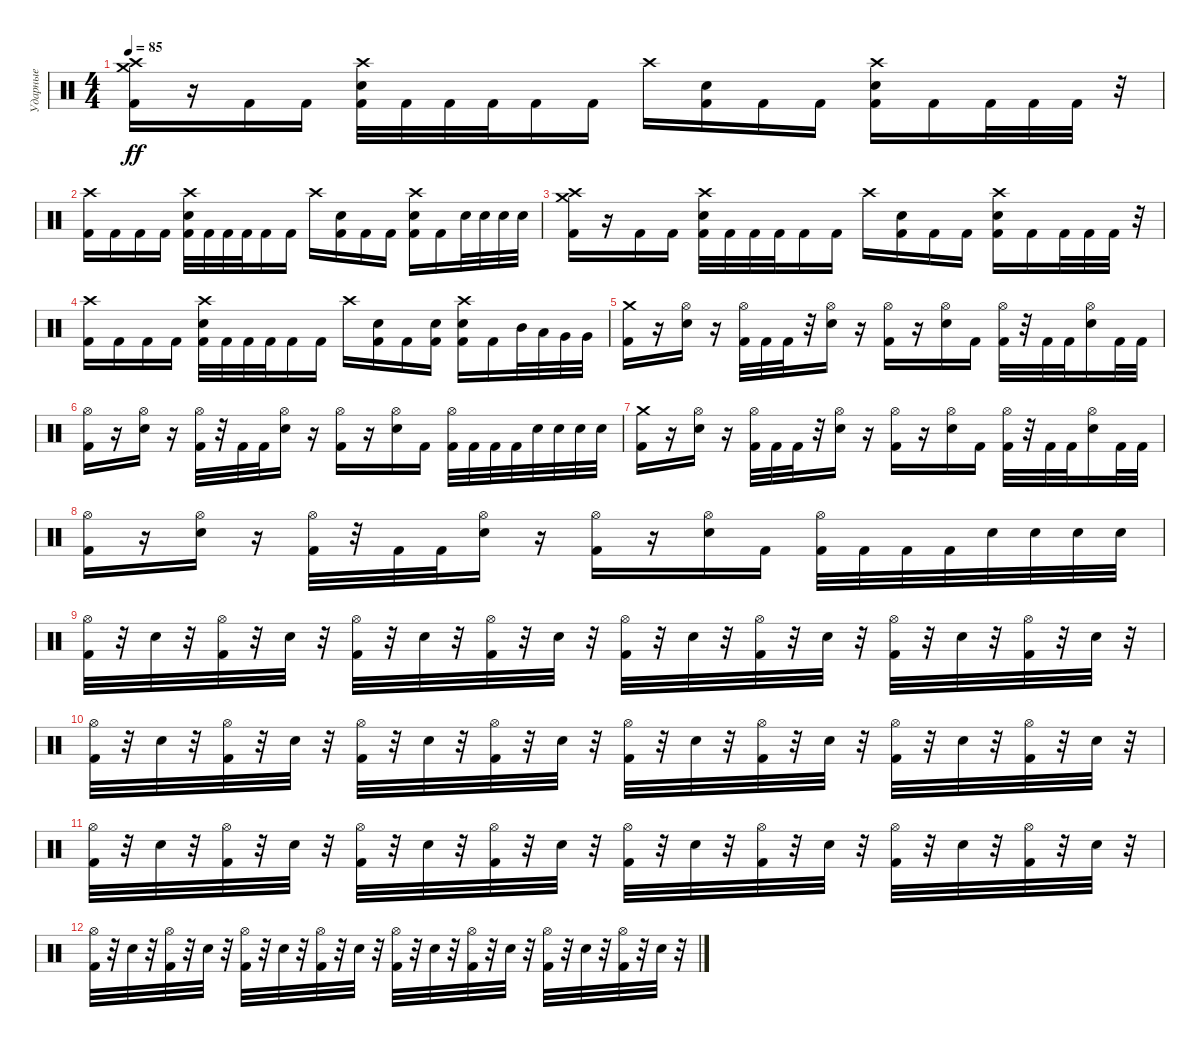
\track ("Ударные" "Ударные") {instrument percussion}
\staff {score}
\articulation defaults
\ts (4 4)
\tempo 85
\clef neutral
\ks c
("Crash high (hit)" "Crash medium (hit)" "Kick (hit) 2").16{dy ff} r.16 "Kick (hit) 2".16 "Kick (hit) 2".16 ("Crash high (hit)" "Electric Snare (hit)" "Kick (hit) 2").32 "Kick (hit) 2".32 "Kick (hit) 2".32 "Kick (hit) 2".32 "Kick (hit) 2".16 "Kick (hit) 2".16 "Crash high (hit)".16 ("Electric Snare (hit)" "Kick (hit) 2").16 "Kick (hit) 2".16 "Kick (hit) 2".16 ("Crash high (hit)" "Electric Snare (hit)" "Kick (hit) 2").16 "Kick (hit) 2".16 "Kick (hit) 2".32 "Kick (hit) 2".32 "Kick (hit) 2".32 r.32 |
("Crash high (hit)" "Kick (hit) 2").16 "Kick (hit) 2".16 "Kick (hit) 2".16 "Kick (hit) 2".16 ("Crash high (hit)" "Electric Snare (hit)" "Kick (hit) 2").32 "Kick (hit) 2".32 "Kick (hit) 2".32 "Kick (hit) 2".32 "Kick (hit) 2".16 "Kick (hit) 2".16 "Crash high (hit)".16 ("Electric Snare (hit)" "Kick (hit) 2").16 "Kick (hit) 2".16 "Kick (hit) 2".16 ("Crash high (hit)" "Electric Snare (hit)" "Kick (hit) 2").16 "Kick (hit) 2".16 "Electric Snare (hit)".32 "Electric Snare (hit)".32 "Electric Snare (hit)".32 "Electric Snare (hit)".32 |
("Crash high (hit)" "Crash medium (hit)" "Kick (hit) 2").16 r.16 "Kick (hit) 2".16 "Kick (hit) 2".16 ("Crash high (hit)" "Electric Snare (hit)" "Kick (hit) 2").32 "Kick (hit) 2".32 "Kick (hit) 2".32 "Kick (hit) 2".32 "Kick (hit) 2".16 "Kick (hit) 2".16 "Crash high (hit)".16 ("Electric Snare (hit)" "Kick (hit) 2").16 "Kick (hit) 2".16 "Kick (hit) 2".16 ("Crash high (hit)" "Electric Snare (hit)" "Kick (hit) 2").16 "Kick (hit) 2".16 "Kick (hit) 2".32 "Kick (hit) 2".32 "Kick (hit) 2".32 r.32 |
("Crash high (hit)" "Kick (hit) 2").16 "Kick (hit) 2".16 "Kick (hit) 2".16 "Kick (hit) 2".16 ("Crash high (hit)" "Electric Snare (hit)" "Kick (hit) 2").32 "Kick (hit) 2".32 "Kick (hit) 2".32 "Kick (hit) 2".32 "Kick (hit) 2".16 "Kick (hit) 2".16 "Crash high (hit)".16 ("Electric Snare (hit)" "Kick (hit) 2").16 "Kick (hit) 2".16 ("Electric Snare (hit)" "Kick (hit) 2").16 ("Crash high (hit)" "Electric Snare (hit)" "Kick (hit) 2").16 "Kick (hit) 2".16 "Mid Tom (hit)".32 "Low Tom (hit)".32 "Very Low Tom (hit)".32 "Very Low Tom (hit)".32 |
("Crash medium (hit)" "Kick (hit) 2").16 r.16 ("Hi-Hat (open)" "Electric Snare (hit)").16 r.16 ("Hi-Hat (open)" "Kick (hit) 2").32 "Kick (hit) 2".32 "Kick (hit) 2".32 r.32 ("Hi-Hat (open)" "Electric Snare (hit)").16 r.16 ("Hi-Hat (open)" "Kick (hit) 2").16 r.16 ("Hi-Hat (open)" "Electric Snare (hit)").16 "Kick (hit) 2".16 ("Hi-Hat (open)" "Kick (hit) 2").32 r.32 "Kick (hit) 2".32 "Kick (hit) 2".32 ("Hi-Hat (open)" "Electric Snare (hit)").16 "Kick (hit) 2".32 "Kick (hit) 2".32 |
("Hi-Hat (open)" "Kick (hit) 2").16 r.16 ("Hi-Hat (open)" "Electric Snare (hit)").16 r.16 ("Hi-Hat (open)" "Kick (hit) 2").32 r.32 "Kick (hit) 2".32 "Kick (hit) 2".32 ("Hi-Hat (open)" "Electric Snare (hit)").16 r.16 ("Hi-Hat (open)" "Kick (hit) 2").16 r.16 ("Hi-Hat (open)" "Electric Snare (hit)").16 "Kick (hit) 2".16 ("Hi-Hat (open)" "Kick (hit) 2").32 "Kick (hit) 2".32 "Kick (hit) 2".32 "Kick (hit) 2".32 "Electric Snare (hit)".32 "Electric Snare (hit)".32 "Electric Snare (hit)".32 "Electric Snare (hit)".32 |
("Crash medium (hit)" "Kick (hit) 2").16 r.16 ("Hi-Hat (open)" "Electric Snare (hit)").16 r.16 ("Hi-Hat (open)" "Kick (hit) 2").32 "Kick (hit) 2".32 "Kick (hit) 2".32 r.32 ("Hi-Hat (open)" "Electric Snare (hit)").16 r.16 ("Hi-Hat (open)" "Kick (hit) 2").16 r.16 ("Hi-Hat (open)" "Electric Snare (hit)").16 "Kick (hit) 2".16 ("Hi-Hat (open)" "Kick (hit) 2").32 r.32 "Kick (hit) 2".32 "Kick (hit) 2".32 ("Hi-Hat (open)" "Electric Snare (hit)").16 "Kick (hit) 2".32 "Kick (hit) 2".32 |
("Hi-Hat (open)" "Kick (hit) 2").16 r.16 ("Hi-Hat (open)" "Electric Snare (hit)").16 r.16 ("Hi-Hat (open)" "Kick (hit) 2").32 r.32 "Kick (hit) 2".32 "Kick (hit) 2".32 ("Hi-Hat (open)" "Electric Snare (hit)").16 r.16 ("Hi-Hat (open)" "Kick (hit) 2").16 r.16 ("Hi-Hat (open)" "Electric Snare (hit)").16 "Kick (hit) 2".16 ("Hi-Hat (open)" "Kick (hit) 2").32 "Kick (hit) 2".32 "Kick (hit) 2".32 "Kick (hit) 2".32 "Electric Snare (hit)".32 "Electric Snare (hit)".32 "Electric Snare (hit)".32 "Electric Snare (hit)".32 |
("Hi-Hat (open)" "Kick (hit) 2").32 r.32 "Electric Snare (hit)".32 r.32 ("Hi-Hat (open)" "Kick (hit) 2").32 r.32 "Electric Snare (hit)".32 r.32 ("Hi-Hat (open)" "Kick (hit) 2").32 r.32 "Electric Snare (hit)".32 r.32 ("Hi-Hat (open)" "Kick (hit) 2").32 r.32 "Electric Snare (hit)".32 r.32 ("Hi-Hat (open)" "Kick (hit) 2").32 r.32 "Electric Snare (hit)".32 r.32 ("Hi-Hat (open)" "Kick (hit) 2").32 r.32 "Electric Snare (hit)".32 r.32 ("Hi-Hat (open)" "Kick (hit) 2").32 r.32 "Electric Snare (hit)".32 r.32 ("Hi-Hat (open)" "Kick (hit) 2").32 r.32 "Electric Snare (hit)".32 r.32 |
("Hi-Hat (open)" "Kick (hit) 2").32 r.32 "Electric Snare (hit)".32 r.32 ("Hi-Hat (open)" "Kick (hit) 2").32 r.32 "Electric Snare (hit)".32 r.32 ("Hi-Hat (open)" "Kick (hit) 2").32 r.32 "Electric Snare (hit)".32 r.32 ("Hi-Hat (open)" "Kick (hit) 2").32 r.32 "Electric Snare (hit)".32 r.32 ("Hi-Hat (open)" "Kick (hit) 2").32 r.32 "Electric Snare (hit)".32 r.32 ("Hi-Hat (open)" "Kick (hit) 2").32 r.32 "Electric Snare (hit)".32 r.32 ("Hi-Hat (open)" "Kick (hit) 2").32 r.32 "Electric Snare (hit)".32 r.32 ("Hi-Hat (open)" "Kick (hit) 2").32 r.32 "Electric Snare (hit)".32 r.32 |
("Hi-Hat (open)" "Kick (hit) 2").32 r.32 "Electric Snare (hit)".32 r.32 ("Hi-Hat (open)" "Kick (hit) 2").32 r.32 "Electric Snare (hit)".32 r.32 ("Hi-Hat (open)" "Kick (hit) 2").32 r.32 "Electric Snare (hit)".32 r.32 ("Hi-Hat (open)" "Kick (hit) 2").32 r.32 "Electric Snare (hit)".32 r.32 ("Hi-Hat (open)" "Kick (hit) 2").32 r.32 "Electric Snare (hit)".32 r.32 ("Hi-Hat (open)" "Kick (hit) 2").32 r.32 "Electric Snare (hit)".32 r.32 ("Hi-Hat (open)" "Kick (hit) 2").32 r.32 "Electric Snare (hit)".32 r.32 ("Hi-Hat (open)" "Kick (hit) 2").32 r.32 "Electric Snare (hit)".32 r.32 |
("Hi-Hat (open)" "Kick (hit) 2").32 r.32 "Electric Snare (hit)".32 r.32 ("Hi-Hat (open)" "Kick (hit) 2").32 r.32 "Electric Snare (hit)".32 r.32 ("Hi-Hat (open)" "Kick (hit) 2").32 r.32 "Electric Snare (hit)".32 r.32 ("Hi-Hat (open)" "Kick (hit) 2").32 r.32 "Electric Snare (hit)".32 r.32 ("Hi-Hat (open)" "Kick (hit) 2").32 r.32 "Electric Snare (hit)".32 r.32 ("Hi-Hat (open)" "Kick (hit) 2").32 r.32 "Electric Snare (hit)".32 r.32 ("Hi-Hat (open)" "Kick (hit) 2").32 r.32 "Electric Snare (hit)".32 r.32 ("Hi-Hat (open)" "Kick (hit) 2").32 r.32 "Electric Snare (hit)".32 r.32
